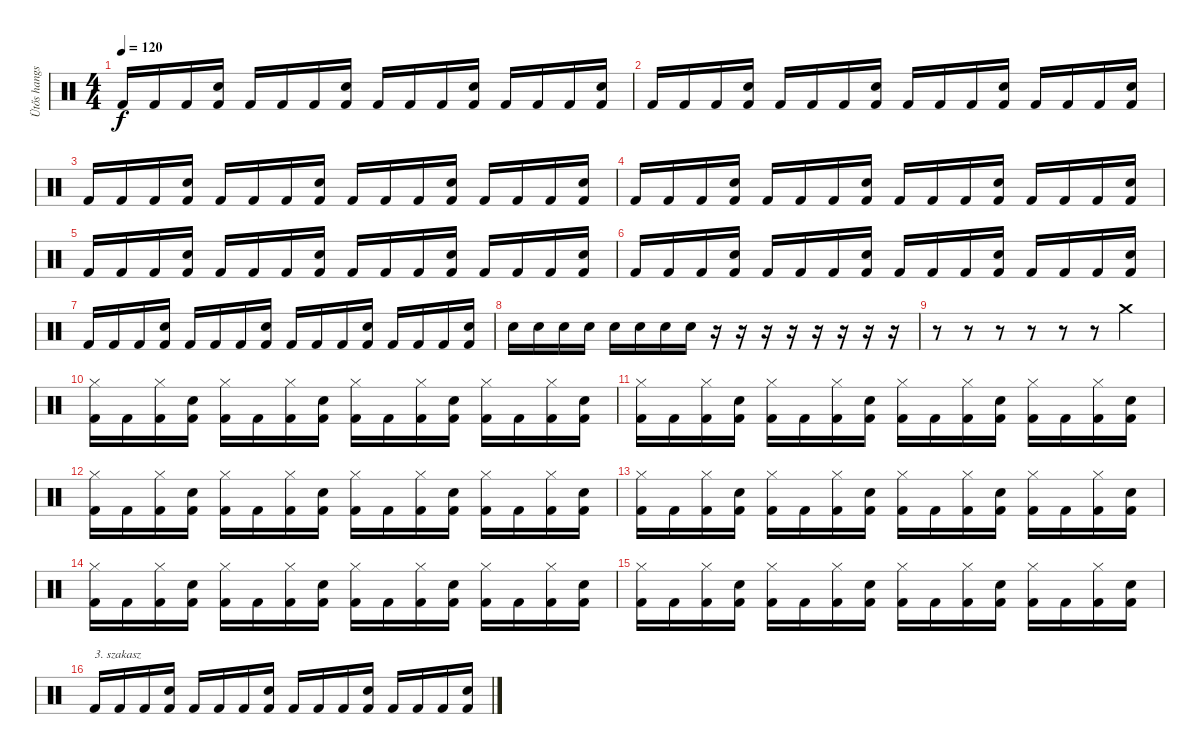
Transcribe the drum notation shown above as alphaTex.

\track ("Ütős hangszer" "Ütős hangs") {instrument percussion}
\staff {score}
\articulation defaults
\ts (4 4)
\tempo 120
\clef neutral
\ks c "Kick (hit) 2".16{dy f} "Kick (hit) 2".16 "Kick (hit) 2".16
("Snare (hit) 2" "Kick (hit) 2").16 "Kick (hit) 2".16 "Kick (hit) 2".16 "Kick (hit) 2".16 ("Snare (hit) 2" "Kick (hit) 2").16 "Kick (hit) 2".16 "Kick (hit) 2".16 "Kick (hit) 2".16 ("Snare (hit) 2" "Kick (hit) 2").16 "Kick (hit) 2".16 "Kick (hit) 2".16 "Kick (hit) 2".16 ("Snare (hit) 2" "Kick (hit) 2").16 |
"Kick (hit) 2".16 "Kick (hit) 2".16 "Kick (hit) 2".16 ("Snare (hit) 2" "Kick (hit) 2").16 "Kick (hit) 2".16 "Kick (hit) 2".16 "Kick (hit) 2".16 ("Snare (hit) 2" "Kick (hit) 2").16 "Kick (hit) 2".16 "Kick (hit) 2".16 "Kick (hit) 2".16 ("Snare (hit) 2" "Kick (hit) 2").16 "Kick (hit) 2".16 "Kick (hit) 2".16 "Kick (hit) 2".16 ("Snare (hit) 2" "Kick (hit) 2").16 |
"Kick (hit) 2".16 "Kick (hit) 2".16 "Kick (hit) 2".16 ("Snare (hit) 2" "Kick (hit) 2").16 "Kick (hit) 2".16 "Kick (hit) 2".16 "Kick (hit) 2".16 ("Snare (hit) 2" "Kick (hit) 2").16 "Kick (hit) 2".16 "Kick (hit) 2".16 "Kick (hit) 2".16 ("Snare (hit) 2" "Kick (hit) 2").16 "Kick (hit) 2".16 "Kick (hit) 2".16 "Kick (hit) 2".16 ("Snare (hit) 2" "Kick (hit) 2").16 |
"Kick (hit) 2".16 "Kick (hit) 2".16 "Kick (hit) 2".16 ("Snare (hit) 2" "Kick (hit) 2").16 "Kick (hit) 2".16 "Kick (hit) 2".16 "Kick (hit) 2".16 ("Snare (hit) 2" "Kick (hit) 2").16 "Kick (hit) 2".16 "Kick (hit) 2".16 "Kick (hit) 2".16 ("Snare (hit) 2" "Kick (hit) 2").16 "Kick (hit) 2".16 "Kick (hit) 2".16 "Kick (hit) 2".16 ("Snare (hit) 2" "Kick (hit) 2").16 |
"Kick (hit) 2".16 "Kick (hit) 2".16 "Kick (hit) 2".16 ("Snare (hit) 2" "Kick (hit) 2").16 "Kick (hit) 2".16 "Kick (hit) 2".16 "Kick (hit) 2".16 ("Snare (hit) 2" "Kick (hit) 2").16 "Kick (hit) 2".16 "Kick (hit) 2".16 "Kick (hit) 2".16 ("Snare (hit) 2" "Kick (hit) 2").16 "Kick (hit) 2".16 "Kick (hit) 2".16 "Kick (hit) 2".16 ("Snare (hit) 2" "Kick (hit) 2").16 |
"Kick (hit) 2".16 "Kick (hit) 2".16 "Kick (hit) 2".16 ("Snare (hit) 2" "Kick (hit) 2").16 "Kick (hit) 2".16 "Kick (hit) 2".16 "Kick (hit) 2".16 ("Snare (hit) 2" "Kick (hit) 2").16 "Kick (hit) 2".16 "Kick (hit) 2".16 "Kick (hit) 2".16 ("Snare (hit) 2" "Kick (hit) 2").16 "Kick (hit) 2".16 "Kick (hit) 2".16 "Kick (hit) 2".16 ("Snare (hit) 2" "Kick (hit) 2").16 |
"Kick (hit) 2".16 "Kick (hit) 2".16 "Kick (hit) 2".16 ("Snare (hit) 2" "Kick (hit) 2").16 "Kick (hit) 2".16 "Kick (hit) 2".16 "Kick (hit) 2".16 ("Snare (hit) 2" "Kick (hit) 2").16 "Kick (hit) 2".16 "Kick (hit) 2".16 "Kick (hit) 2".16 ("Snare (hit) 2" "Kick (hit) 2").16 "Kick (hit) 2".16 "Kick (hit) 2".16 "Kick (hit) 2".16 ("Snare (hit) 2" "Kick (hit) 2").16 |
"Snare (hit) 2".16 "Snare (hit) 2".16 "Snare (hit) 2".16 "Snare (hit) 2".16 "Snare (hit) 2".16 "Snare (hit) 2".16 "Snare (hit) 2".16 "Snare (hit) 2".16 r.16 r.16 r.16 r.16 r.16 r.16 r.16 r.16 |
r.8 r.8 r.8 r.8 r.8 r.8 "Crash medium (hit)".4 |
("Hi-Hat (closed)" "Kick (hit) 2").16 "Kick (hit) 2".16 ("Hi-Hat (closed)" "Kick (hit) 2").16 ("Snare (hit) 2" "Kick (hit) 2").16 ("Hi-Hat (closed)" "Kick (hit) 2").16 "Kick (hit) 2".16 ("Hi-Hat (closed)" "Kick (hit) 2").16 ("Snare (hit) 2" "Kick (hit) 2").16 ("Hi-Hat (closed)" "Kick (hit) 2").16 "Kick (hit) 2".16 ("Hi-Hat (closed)" "Kick (hit) 2").16 ("Snare (hit) 2" "Kick (hit) 2").16 ("Hi-Hat (closed)" "Kick (hit) 2").16 "Kick (hit) 2".16 ("Hi-Hat (closed)" "Kick (hit) 2").16 ("Snare (hit) 2" "Kick (hit) 2").16 |
("Hi-Hat (closed)" "Kick (hit) 2").16 "Kick (hit) 2".16 ("Hi-Hat (closed)" "Kick (hit) 2").16 ("Snare (hit) 2" "Kick (hit) 2").16 ("Hi-Hat (closed)" "Kick (hit) 2").16 "Kick (hit) 2".16 ("Hi-Hat (closed)" "Kick (hit) 2").16 ("Snare (hit) 2" "Kick (hit) 2").16 ("Hi-Hat (closed)" "Kick (hit) 2").16 "Kick (hit) 2".16 ("Hi-Hat (closed)" "Kick (hit) 2").16 ("Snare (hit) 2" "Kick (hit) 2").16 ("Hi-Hat (closed)" "Kick (hit) 2").16 "Kick (hit) 2".16 ("Hi-Hat (closed)" "Kick (hit) 2").16 ("Snare (hit) 2" "Kick (hit) 2").16 |
("Hi-Hat (closed)" "Kick (hit) 2").16 "Kick (hit) 2".16 ("Hi-Hat (closed)" "Kick (hit) 2").16 ("Snare (hit) 2" "Kick (hit) 2").16 ("Hi-Hat (closed)" "Kick (hit) 2").16 "Kick (hit) 2".16 ("Hi-Hat (closed)" "Kick (hit) 2").16 ("Snare (hit) 2" "Kick (hit) 2").16 ("Hi-Hat (closed)" "Kick (hit) 2").16 "Kick (hit) 2".16 ("Hi-Hat (closed)" "Kick (hit) 2").16 ("Snare (hit) 2" "Kick (hit) 2").16 ("Hi-Hat (closed)" "Kick (hit) 2").16 "Kick (hit) 2".16 ("Hi-Hat (closed)" "Kick (hit) 2").16 ("Snare (hit) 2" "Kick (hit) 2").16 |
("Hi-Hat (closed)" "Kick (hit) 2").16 "Kick (hit) 2".16 ("Hi-Hat (closed)" "Kick (hit) 2").16 ("Snare (hit) 2" "Kick (hit) 2").16 ("Hi-Hat (closed)" "Kick (hit) 2").16 "Kick (hit) 2".16 ("Hi-Hat (closed)" "Kick (hit) 2").16 ("Snare (hit) 2" "Kick (hit) 2").16 ("Hi-Hat (closed)" "Kick (hit) 2").16 "Kick (hit) 2".16 ("Hi-Hat (closed)" "Kick (hit) 2").16 ("Snare (hit) 2" "Kick (hit) 2").16 ("Hi-Hat (closed)" "Kick (hit) 2").16 "Kick (hit) 2".16 ("Hi-Hat (closed)" "Kick (hit) 2").16 ("Snare (hit) 2" "Kick (hit) 2").16 |
("Hi-Hat (closed)" "Kick (hit) 2").16 "Kick (hit) 2".16 ("Hi-Hat (closed)" "Kick (hit) 2").16 ("Snare (hit) 2" "Kick (hit) 2").16 ("Hi-Hat (closed)" "Kick (hit) 2").16 "Kick (hit) 2".16 ("Hi-Hat (closed)" "Kick (hit) 2").16 ("Snare (hit) 2" "Kick (hit) 2").16 ("Hi-Hat (closed)" "Kick (hit) 2").16 "Kick (hit) 2".16 ("Hi-Hat (closed)" "Kick (hit) 2").16 ("Snare (hit) 2" "Kick (hit) 2").16 ("Hi-Hat (closed)" "Kick (hit) 2").16 "Kick (hit) 2".16 ("Hi-Hat (closed)" "Kick (hit) 2").16 ("Snare (hit) 2" "Kick (hit) 2").16 |
("Hi-Hat (closed)" "Kick (hit) 2").16 "Kick (hit) 2".16 ("Hi-Hat (closed)" "Kick (hit) 2").16 ("Snare (hit) 2" "Kick (hit) 2").16 ("Hi-Hat (closed)" "Kick (hit) 2").16 "Kick (hit) 2".16 ("Hi-Hat (closed)" "Kick (hit) 2").16 ("Snare (hit) 2" "Kick (hit) 2").16 ("Hi-Hat (closed)" "Kick (hit) 2").16 "Kick (hit) 2".16 ("Hi-Hat (closed)" "Kick (hit) 2").16 ("Snare (hit) 2" "Kick (hit) 2").16 ("Hi-Hat (closed)" "Kick (hit) 2").16 "Kick (hit) 2".16 ("Hi-Hat (closed)" "Kick (hit) 2").16 ("Snare (hit) 2" "Kick (hit) 2").16 |
"Kick (hit) 2".16{txt "3. szakasz"} "Kick (hit) 2".16 "Kick (hit) 2".16 ("Snare (hit) 2" "Kick (hit) 2").16 "Kick (hit) 2".16 "Kick (hit) 2".16 "Kick (hit) 2".16 ("Snare (hit) 2" "Kick (hit) 2").16 "Kick (hit) 2".16 "Kick (hit) 2".16 "Kick (hit) 2".16 ("Snare (hit) 2" "Kick (hit) 2").16 "Kick (hit) 2".16 "Kick (hit) 2".16 "Kick (hit) 2".16 ("Snare (hit) 2" "Kick (hit) 2").16
